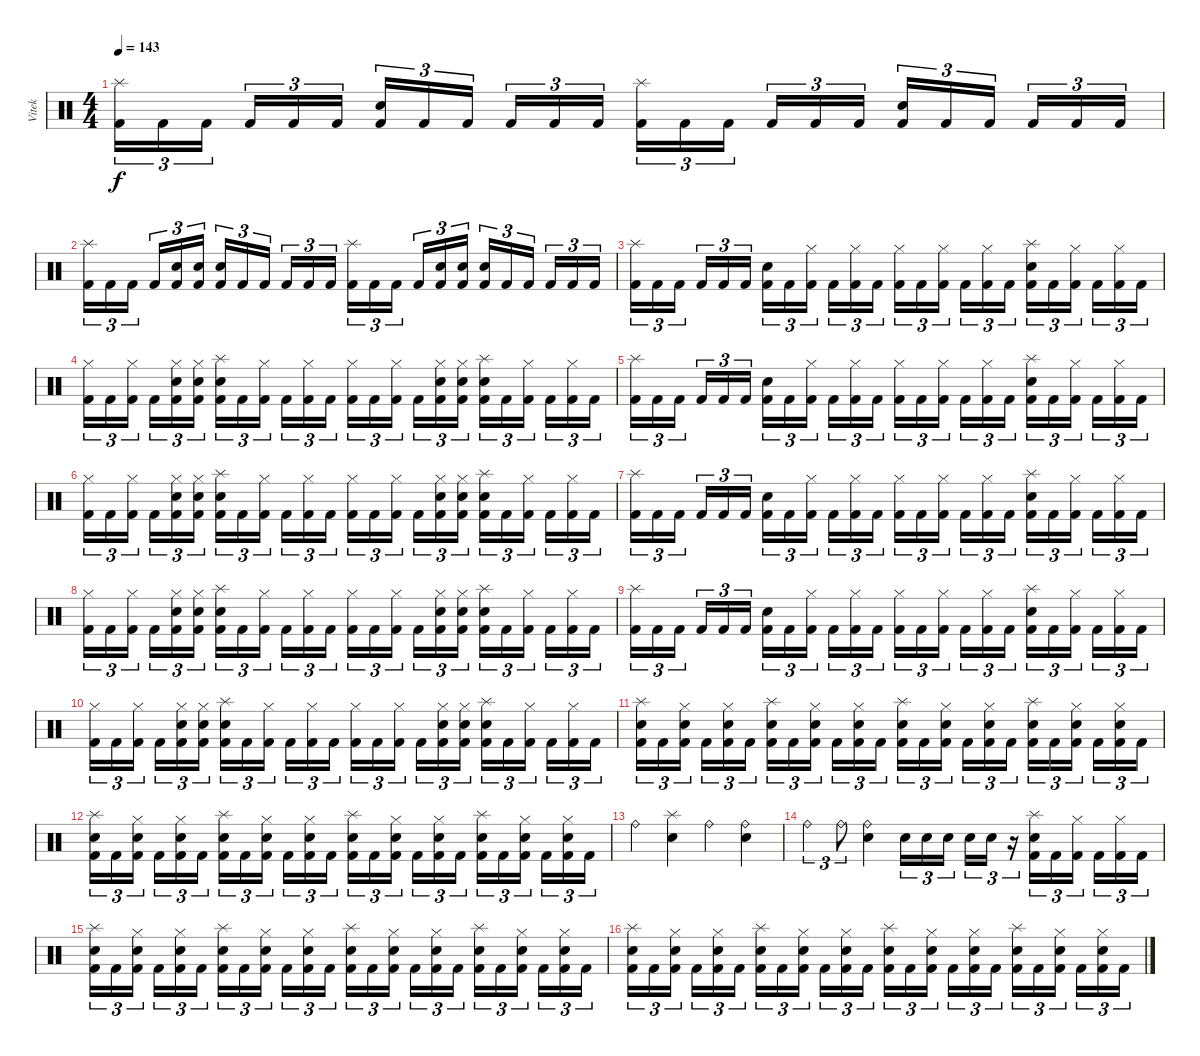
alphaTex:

\track ("Vitek" "Vitek") {instrument percussion}
\staff {score}
\articulation defaults
\ts (4 4)
\tempo 143
\clef neutral
\ks c
("Splash (hit)" "Kick (hit) 2").16{tu (3 2) dy f} "Kick (hit) 2".16{tu (3 2)} "Kick (hit) 2".16{tu (3 2) beam splitsecondary} "Kick (hit) 2".16{tu (3 2)} "Kick (hit) 2".16{tu (3 2)} "Kick (hit) 2".16{tu (3 2)} ("Electric Snare (hit)" "Kick (hit) 2").16{tu (3 2)} "Kick (hit) 2".16{tu (3 2)} "Kick (hit) 2".16{tu (3 2) beam splitsecondary} "Kick (hit) 2".16{tu (3 2)} "Kick (hit) 2".16{tu (3 2)} "Kick (hit) 2".16{tu (3 2)} ("Splash (hit)" "Kick (hit) 2").16{tu (3 2)} "Kick (hit) 2".16{tu (3 2)} "Kick (hit) 2".16{tu (3 2) beam splitsecondary} "Kick (hit) 2".16{tu (3 2)} "Kick (hit) 2".16{tu (3 2)} "Kick (hit) 2".16{tu (3 2)} ("Electric Snare (hit)" "Kick (hit) 2").16{tu (3 2)} "Kick (hit) 2".16{tu (3 2)} "Kick (hit) 2".16{tu (3 2) beam splitsecondary} "Kick (hit) 2".16{tu (3 2)} "Kick (hit) 2".16{tu (3 2)} "Kick (hit) 2".16{tu (3 2)} |
("Splash (hit)" "Kick (hit) 2").16{tu (3 2)} "Kick (hit) 2".16{tu (3 2)} "Kick (hit) 2".16{tu (3 2) beam splitsecondary} "Kick (hit) 2".16{tu (3 2)} ("Electric Snare (hit)" "Kick (hit) 2").16{tu (3 2)} ("Electric Snare (hit)" "Kick (hit) 2").16{tu (3 2)} ("Electric Snare (hit)" "Kick (hit) 2").16{tu (3 2)} "Kick (hit) 2".16{tu (3 2)} "Kick (hit) 2".16{tu (3 2) beam splitsecondary} "Kick (hit) 2".16{tu (3 2)} "Kick (hit) 2".16{tu (3 2)} "Kick (hit) 2".16{tu (3 2)} ("Splash (hit)" "Kick (hit) 2").16{tu (3 2)} "Kick (hit) 2".16{tu (3 2)} "Kick (hit) 2".16{tu (3 2) beam splitsecondary} "Kick (hit) 2".16{tu (3 2)} ("Electric Snare (hit)" "Kick (hit) 2").16{tu (3 2)} ("Electric Snare (hit)" "Kick (hit) 2").16{tu (3 2)} ("Electric Snare (hit)" "Kick (hit) 2").16{tu (3 2)} "Kick (hit) 2".16{tu (3 2)} "Kick (hit) 2".16{tu (3 2) beam splitsecondary} "Kick (hit) 2".16{tu (3 2)} "Kick (hit) 2".16{tu (3 2)} "Kick (hit) 2".16{tu (3 2)} |
("Splash (hit)" "Kick (hit) 2").16{tu (3 2)} "Kick (hit) 2".16{tu (3 2)} "Kick (hit) 2".16{tu (3 2) beam splitsecondary} "Kick (hit) 2".16{tu (3 2)} "Kick (hit) 2".16{tu (3 2)} "Kick (hit) 2".16{tu (3 2)} ("Electric Snare (hit)" "Kick (hit) 2").16{tu (3 2)} "Kick (hit) 2".16{tu (3 2)} ("Hi-Hat (closed)" "Kick (hit) 2").16{tu (3 2) beam splitsecondary} "Kick (hit) 2".16{tu (3 2)} ("Hi-Hat (closed)" "Kick (hit) 2").16{tu (3 2)} "Kick (hit) 2".16{tu (3 2)} ("Hi-Hat (closed)" "Kick (hit) 2").16{tu (3 2)} "Kick (hit) 2".16{tu (3 2)} ("Hi-Hat (closed)" "Kick (hit) 2").16{tu (3 2) beam splitsecondary} "Kick (hit) 2".16{tu (3 2)} ("Hi-Hat (closed)" "Kick (hit) 2").16{tu (3 2)} "Kick (hit) 2".16{tu (3 2)} ("Splash (hit)" "Electric Snare (hit)" "Kick (hit) 2").16{tu (3 2)} "Kick (hit) 2".16{tu (3 2)} ("Hi-Hat (closed)" "Kick (hit) 2").16{tu (3 2) beam splitsecondary} "Kick (hit) 2".16{tu (3 2)} ("Hi-Hat (closed)" "Kick (hit) 2").16{tu (3 2)} "Kick (hit) 2".16{tu (3 2)} |
("Hi-Hat (closed)" "Kick (hit) 2").16{tu (3 2)} "Kick (hit) 2".16{tu (3 2)} ("Hi-Hat (closed)" "Kick (hit) 2").16{tu (3 2) beam splitsecondary} "Kick (hit) 2".16{tu (3 2)} ("Hi-Hat (closed)" "Electric Snare (hit)" "Kick (hit) 2").16{tu (3 2)} ("Hi-Hat (closed)" "Electric Snare (hit)" "Kick (hit) 2").16{tu (3 2)} ("Splash (hit)" "Electric Snare (hit)" "Kick (hit) 2").16{tu (3 2)} "Kick (hit) 2".16{tu (3 2)} ("Hi-Hat (closed)" "Kick (hit) 2").16{tu (3 2) beam splitsecondary} "Kick (hit) 2".16{tu (3 2)} ("Hi-Hat (closed)" "Kick (hit) 2").16{tu (3 2)} "Kick (hit) 2".16{tu (3 2)} ("Hi-Hat (closed)" "Kick (hit) 2").16{tu (3 2)} "Kick (hit) 2".16{tu (3 2)} ("Hi-Hat (closed)" "Kick (hit) 2").16{tu (3 2) beam splitsecondary} "Kick (hit) 2".16{tu (3 2)} ("Hi-Hat (closed)" "Electric Snare (hit)" "Kick (hit) 2").16{tu (3 2)} ("Hi-Hat (closed)" "Electric Snare (hit)" "Kick (hit) 2").16{tu (3 2)} ("Splash (hit)" "Electric Snare (hit)" "Kick (hit) 2").16{tu (3 2)} "Kick (hit) 2".16{tu (3 2)} ("Hi-Hat (closed)" "Kick (hit) 2").16{tu (3 2) beam splitsecondary} "Kick (hit) 2".16{tu (3 2)} ("Hi-Hat (closed)" "Kick (hit) 2").16{tu (3 2)} "Kick (hit) 2".16{tu (3 2)} |
("Splash (hit)" "Kick (hit) 2").16{tu (3 2)} "Kick (hit) 2".16{tu (3 2)} "Kick (hit) 2".16{tu (3 2) beam splitsecondary} "Kick (hit) 2".16{tu (3 2)} "Kick (hit) 2".16{tu (3 2)} "Kick (hit) 2".16{tu (3 2)} ("Electric Snare (hit)" "Kick (hit) 2").16{tu (3 2)} "Kick (hit) 2".16{tu (3 2)} ("Hi-Hat (closed)" "Kick (hit) 2").16{tu (3 2) beam splitsecondary} "Kick (hit) 2".16{tu (3 2)} ("Hi-Hat (closed)" "Kick (hit) 2").16{tu (3 2)} "Kick (hit) 2".16{tu (3 2)} ("Hi-Hat (closed)" "Kick (hit) 2").16{tu (3 2)} "Kick (hit) 2".16{tu (3 2)} ("Hi-Hat (closed)" "Kick (hit) 2").16{tu (3 2) beam splitsecondary} "Kick (hit) 2".16{tu (3 2)} ("Hi-Hat (closed)" "Kick (hit) 2").16{tu (3 2)} "Kick (hit) 2".16{tu (3 2)} ("Splash (hit)" "Electric Snare (hit)" "Kick (hit) 2").16{tu (3 2)} "Kick (hit) 2".16{tu (3 2)} ("Hi-Hat (closed)" "Kick (hit) 2").16{tu (3 2) beam splitsecondary} "Kick (hit) 2".16{tu (3 2)} ("Hi-Hat (closed)" "Kick (hit) 2").16{tu (3 2)} "Kick (hit) 2".16{tu (3 2)} |
("Hi-Hat (closed)" "Kick (hit) 2").16{tu (3 2)} "Kick (hit) 2".16{tu (3 2)} ("Hi-Hat (closed)" "Kick (hit) 2").16{tu (3 2) beam splitsecondary} "Kick (hit) 2".16{tu (3 2)} ("Hi-Hat (closed)" "Electric Snare (hit)" "Kick (hit) 2").16{tu (3 2)} ("Hi-Hat (closed)" "Electric Snare (hit)" "Kick (hit) 2").16{tu (3 2)} ("Splash (hit)" "Electric Snare (hit)" "Kick (hit) 2").16{tu (3 2)} "Kick (hit) 2".16{tu (3 2)} ("Hi-Hat (closed)" "Kick (hit) 2").16{tu (3 2) beam splitsecondary} "Kick (hit) 2".16{tu (3 2)} ("Hi-Hat (closed)" "Kick (hit) 2").16{tu (3 2)} "Kick (hit) 2".16{tu (3 2)} ("Hi-Hat (closed)" "Kick (hit) 2").16{tu (3 2)} "Kick (hit) 2".16{tu (3 2)} ("Hi-Hat (closed)" "Kick (hit) 2").16{tu (3 2) beam splitsecondary} "Kick (hit) 2".16{tu (3 2)} ("Hi-Hat (closed)" "Electric Snare (hit)" "Kick (hit) 2").16{tu (3 2)} ("Hi-Hat (closed)" "Electric Snare (hit)" "Kick (hit) 2").16{tu (3 2)} ("Splash (hit)" "Electric Snare (hit)" "Kick (hit) 2").16{tu (3 2)} "Kick (hit) 2".16{tu (3 2)} ("Hi-Hat (closed)" "Kick (hit) 2").16{tu (3 2) beam splitsecondary} "Kick (hit) 2".16{tu (3 2)} ("Hi-Hat (closed)" "Kick (hit) 2").16{tu (3 2)} "Kick (hit) 2".16{tu (3 2)} |
("Splash (hit)" "Kick (hit) 2").16{tu (3 2)} "Kick (hit) 2".16{tu (3 2)} "Kick (hit) 2".16{tu (3 2) beam splitsecondary} "Kick (hit) 2".16{tu (3 2)} "Kick (hit) 2".16{tu (3 2)} "Kick (hit) 2".16{tu (3 2)} ("Electric Snare (hit)" "Kick (hit) 2").16{tu (3 2)} "Kick (hit) 2".16{tu (3 2)} ("Hi-Hat (closed)" "Kick (hit) 2").16{tu (3 2) beam splitsecondary} "Kick (hit) 2".16{tu (3 2)} ("Hi-Hat (closed)" "Kick (hit) 2").16{tu (3 2)} "Kick (hit) 2".16{tu (3 2)} ("Hi-Hat (closed)" "Kick (hit) 2").16{tu (3 2)} "Kick (hit) 2".16{tu (3 2)} ("Hi-Hat (closed)" "Kick (hit) 2").16{tu (3 2) beam splitsecondary} "Kick (hit) 2".16{tu (3 2)} ("Hi-Hat (closed)" "Kick (hit) 2").16{tu (3 2)} "Kick (hit) 2".16{tu (3 2)} ("Splash (hit)" "Electric Snare (hit)" "Kick (hit) 2").16{tu (3 2)} "Kick (hit) 2".16{tu (3 2)} ("Hi-Hat (closed)" "Kick (hit) 2").16{tu (3 2) beam splitsecondary} "Kick (hit) 2".16{tu (3 2)} ("Hi-Hat (closed)" "Kick (hit) 2").16{tu (3 2)} "Kick (hit) 2".16{tu (3 2)} |
("Hi-Hat (closed)" "Kick (hit) 2").16{tu (3 2)} "Kick (hit) 2".16{tu (3 2)} ("Hi-Hat (closed)" "Kick (hit) 2").16{tu (3 2) beam splitsecondary} "Kick (hit) 2".16{tu (3 2)} ("Hi-Hat (closed)" "Electric Snare (hit)" "Kick (hit) 2").16{tu (3 2)} ("Hi-Hat (closed)" "Electric Snare (hit)" "Kick (hit) 2").16{tu (3 2)} ("Splash (hit)" "Electric Snare (hit)" "Kick (hit) 2").16{tu (3 2)} "Kick (hit) 2".16{tu (3 2)} ("Hi-Hat (closed)" "Kick (hit) 2").16{tu (3 2) beam splitsecondary} "Kick (hit) 2".16{tu (3 2)} ("Hi-Hat (closed)" "Kick (hit) 2").16{tu (3 2)} "Kick (hit) 2".16{tu (3 2)} ("Hi-Hat (closed)" "Kick (hit) 2").16{tu (3 2)} "Kick (hit) 2".16{tu (3 2)} ("Hi-Hat (closed)" "Kick (hit) 2").16{tu (3 2) beam splitsecondary} "Kick (hit) 2".16{tu (3 2)} ("Hi-Hat (closed)" "Electric Snare (hit)" "Kick (hit) 2").16{tu (3 2)} ("Hi-Hat (closed)" "Electric Snare (hit)" "Kick (hit) 2").16{tu (3 2)} ("Splash (hit)" "Electric Snare (hit)" "Kick (hit) 2").16{tu (3 2)} "Kick (hit) 2".16{tu (3 2)} ("Hi-Hat (closed)" "Kick (hit) 2").16{tu (3 2) beam splitsecondary} "Kick (hit) 2".16{tu (3 2)} ("Hi-Hat (closed)" "Kick (hit) 2").16{tu (3 2)} "Kick (hit) 2".16{tu (3 2)} |
("Splash (hit)" "Kick (hit) 2").16{tu (3 2)} "Kick (hit) 2".16{tu (3 2)} "Kick (hit) 2".16{tu (3 2) beam splitsecondary} "Kick (hit) 2".16{tu (3 2)} "Kick (hit) 2".16{tu (3 2)} "Kick (hit) 2".16{tu (3 2)} ("Electric Snare (hit)" "Kick (hit) 2").16{tu (3 2)} "Kick (hit) 2".16{tu (3 2)} ("Hi-Hat (closed)" "Kick (hit) 2").16{tu (3 2) beam splitsecondary} "Kick (hit) 2".16{tu (3 2)} ("Hi-Hat (closed)" "Kick (hit) 2").16{tu (3 2)} "Kick (hit) 2".16{tu (3 2)} ("Hi-Hat (closed)" "Kick (hit) 2").16{tu (3 2)} "Kick (hit) 2".16{tu (3 2)} ("Hi-Hat (closed)" "Kick (hit) 2").16{tu (3 2) beam splitsecondary} "Kick (hit) 2".16{tu (3 2)} ("Hi-Hat (closed)" "Kick (hit) 2").16{tu (3 2)} "Kick (hit) 2".16{tu (3 2)} ("Splash (hit)" "Electric Snare (hit)" "Kick (hit) 2").16{tu (3 2)} "Kick (hit) 2".16{tu (3 2)} ("Hi-Hat (closed)" "Kick (hit) 2").16{tu (3 2) beam splitsecondary} "Kick (hit) 2".16{tu (3 2)} ("Hi-Hat (closed)" "Kick (hit) 2").16{tu (3 2)} "Kick (hit) 2".16{tu (3 2)} |
("Hi-Hat (closed)" "Kick (hit) 2").16{tu (3 2)} "Kick (hit) 2".16{tu (3 2)} ("Hi-Hat (closed)" "Kick (hit) 2").16{tu (3 2) beam splitsecondary} "Kick (hit) 2".16{tu (3 2)} ("Hi-Hat (closed)" "Electric Snare (hit)" "Kick (hit) 2").16{tu (3 2)} ("Hi-Hat (closed)" "Electric Snare (hit)" "Kick (hit) 2").16{tu (3 2)} ("Splash (hit)" "Electric Snare (hit)" "Kick (hit) 2").16{tu (3 2)} "Kick (hit) 2".16{tu (3 2)} ("Hi-Hat (closed)" "Kick (hit) 2").16{tu (3 2) beam splitsecondary} "Kick (hit) 2".16{tu (3 2)} ("Hi-Hat (closed)" "Kick (hit) 2").16{tu (3 2)} "Kick (hit) 2".16{tu (3 2)} ("Hi-Hat (closed)" "Kick (hit) 2").16{tu (3 2)} "Kick (hit) 2".16{tu (3 2)} ("Hi-Hat (closed)" "Kick (hit) 2").16{tu (3 2) beam splitsecondary} "Kick (hit) 2".16{tu (3 2)} ("Hi-Hat (closed)" "Electric Snare (hit)" "Kick (hit) 2").16{tu (3 2)} ("Hi-Hat (closed)" "Electric Snare (hit)" "Kick (hit) 2").16{tu (3 2)} ("Splash (hit)" "Electric Snare (hit)" "Kick (hit) 2").16{tu (3 2)} "Kick (hit) 2".16{tu (3 2)} ("Hi-Hat (closed)" "Kick (hit) 2").16{tu (3 2) beam splitsecondary} "Kick (hit) 2".16{tu (3 2)} ("Hi-Hat (closed)" "Kick (hit) 2").16{tu (3 2)} "Kick (hit) 2".16{tu (3 2)} |
("Splash (hit)" "Electric Snare (hit)" "Kick (hit) 2").16{tu (3 2)} "Kick (hit) 2".16{tu (3 2)} ("Hi-Hat (closed)" "Electric Snare (hit)" "Kick (hit) 2").16{tu (3 2) beam splitsecondary} "Kick (hit) 2".16{tu (3 2)} ("Hi-Hat (closed)" "Electric Snare (hit)" "Kick (hit) 2").16{tu (3 2)} "Kick (hit) 2".16{tu (3 2)} ("Splash (hit)" "Electric Snare (hit)" "Kick (hit) 2").16{tu (3 2)} "Kick (hit) 2".16{tu (3 2)} ("Hi-Hat (closed)" "Electric Snare (hit)" "Kick (hit) 2").16{tu (3 2) beam splitsecondary} "Kick (hit) 2".16{tu (3 2)} ("Hi-Hat (closed)" "Electric Snare (hit)" "Kick (hit) 2").16{tu (3 2)} "Kick (hit) 2".16{tu (3 2)} ("Splash (hit)" "Electric Snare (hit)" "Kick (hit) 2").16{tu (3 2)} "Kick (hit) 2".16{tu (3 2)} ("Hi-Hat (closed)" "Electric Snare (hit)" "Kick (hit) 2").16{tu (3 2) beam splitsecondary} "Kick (hit) 2".16{tu (3 2)} ("Hi-Hat (closed)" "Electric Snare (hit)" "Kick (hit) 2").16{tu (3 2)} "Kick (hit) 2".16{tu (3 2)} ("Splash (hit)" "Electric Snare (hit)" "Kick (hit) 2").16{tu (3 2)} "Kick (hit) 2".16{tu (3 2)} ("Hi-Hat (closed)" "Electric Snare (hit)" "Kick (hit) 2").16{tu (3 2) beam splitsecondary} "Kick (hit) 2".16{tu (3 2)} ("Hi-Hat (closed)" "Electric Snare (hit)" "Kick (hit) 2").16{tu (3 2)} "Kick (hit) 2".16{tu (3 2)} |
("Splash (hit)" "Electric Snare (hit)" "Kick (hit) 2").16{tu (3 2)} "Kick (hit) 2".16{tu (3 2)} ("Hi-Hat (closed)" "Electric Snare (hit)" "Kick (hit) 2").16{tu (3 2) beam splitsecondary} "Kick (hit) 2".16{tu (3 2)} ("Hi-Hat (closed)" "Electric Snare (hit)" "Kick (hit) 2").16{tu (3 2)} "Kick (hit) 2".16{tu (3 2)} ("Splash (hit)" "Electric Snare (hit)" "Kick (hit) 2").16{tu (3 2)} "Kick (hit) 2".16{tu (3 2)} ("Hi-Hat (closed)" "Electric Snare (hit)" "Kick (hit) 2").16{tu (3 2) beam splitsecondary} "Kick (hit) 2".16{tu (3 2)} ("Hi-Hat (closed)" "Electric Snare (hit)" "Kick (hit) 2").16{tu (3 2)} "Kick (hit) 2".16{tu (3 2)} ("Splash (hit)" "Electric Snare (hit)" "Kick (hit) 2").16{tu (3 2)} "Kick (hit) 2".16{tu (3 2)} ("Hi-Hat (closed)" "Electric Snare (hit)" "Kick (hit) 2").16{tu (3 2) beam splitsecondary} "Kick (hit) 2".16{tu (3 2)} ("Hi-Hat (closed)" "Electric Snare (hit)" "Kick (hit) 2").16{tu (3 2)} "Kick (hit) 2".16{tu (3 2)} ("Splash (hit)" "Electric Snare (hit)" "Kick (hit) 2").16{tu (3 2)} "Kick (hit) 2".16{tu (3 2)} ("Hi-Hat (closed)" "Electric Snare (hit)" "Kick (hit) 2").16{tu (3 2) beam splitsecondary} "Kick (hit) 2".16{tu (3 2)} ("Hi-Hat (closed)" "Electric Snare (hit)" "Kick (hit) 2").16{tu (3 2)} "Kick (hit) 2".16{tu (3 2)} |
"Ride (bell)".4 ("Splash (hit)" "Electric Snare (hit)").4 "Ride (bell)".4 ("Ride (bell)" "Electric Snare (hit)").4 |
"Ride (bell)".4{tu (3 2)} "Ride (bell)".8{tu (3 2)} ("Ride (bell)" "Electric Snare (hit)").4 "Electric Snare (hit)".16{tu (3 2)} "Electric Snare (hit)".16{tu (3 2)} "Electric Snare (hit)".16{tu (3 2) beam splitsecondary} "Electric Snare (hit)".16{tu (3 2)} "Electric Snare (hit)".16{tu (3 2)} r.16{tu (3 2)} ("Splash (hit)" "Electric Snare (hit)" "Kick (hit) 2").16{tu (3 2)} "Kick (hit) 2".16{tu (3 2)} ("Hi-Hat (closed)" "Kick (hit) 2").16{tu (3 2) beam splitsecondary} "Kick (hit) 2".16{tu (3 2)} ("Hi-Hat (closed)" "Kick (hit) 2").16{tu (3 2)} "Kick (hit) 2".16{tu (3 2)} |
("Splash (hit)" "Electric Snare (hit)" "Kick (hit) 2").16{tu (3 2)} "Kick (hit) 2".16{tu (3 2)} ("Hi-Hat (closed)" "Electric Snare (hit)" "Kick (hit) 2").16{tu (3 2) beam splitsecondary} "Kick (hit) 2".16{tu (3 2)} ("Hi-Hat (closed)" "Electric Snare (hit)" "Kick (hit) 2").16{tu (3 2)} "Kick (hit) 2".16{tu (3 2)} ("Splash (hit)" "Electric Snare (hit)" "Kick (hit) 2").16{tu (3 2)} "Kick (hit) 2".16{tu (3 2)} ("Hi-Hat (closed)" "Electric Snare (hit)" "Kick (hit) 2").16{tu (3 2) beam splitsecondary} "Kick (hit) 2".16{tu (3 2)} ("Hi-Hat (closed)" "Electric Snare (hit)" "Kick (hit) 2").16{tu (3 2)} "Kick (hit) 2".16{tu (3 2)} ("Splash (hit)" "Electric Snare (hit)" "Kick (hit) 2").16{tu (3 2)} "Kick (hit) 2".16{tu (3 2)} ("Hi-Hat (closed)" "Electric Snare (hit)" "Kick (hit) 2").16{tu (3 2) beam splitsecondary} "Kick (hit) 2".16{tu (3 2)} ("Hi-Hat (closed)" "Electric Snare (hit)" "Kick (hit) 2").16{tu (3 2)} "Kick (hit) 2".16{tu (3 2)} ("Splash (hit)" "Electric Snare (hit)" "Kick (hit) 2").16{tu (3 2)} "Kick (hit) 2".16{tu (3 2)} ("Hi-Hat (closed)" "Electric Snare (hit)" "Kick (hit) 2").16{tu (3 2) beam splitsecondary} "Kick (hit) 2".16{tu (3 2)} ("Hi-Hat (closed)" "Electric Snare (hit)" "Kick (hit) 2").16{tu (3 2)} "Kick (hit) 2".16{tu (3 2)} |
("Splash (hit)" "Electric Snare (hit)" "Kick (hit) 2").16{tu (3 2)} "Kick (hit) 2".16{tu (3 2)} ("Hi-Hat (closed)" "Electric Snare (hit)" "Kick (hit) 2").16{tu (3 2) beam splitsecondary} "Kick (hit) 2".16{tu (3 2)} ("Hi-Hat (closed)" "Electric Snare (hit)" "Kick (hit) 2").16{tu (3 2)} "Kick (hit) 2".16{tu (3 2)} ("Splash (hit)" "Electric Snare (hit)" "Kick (hit) 2").16{tu (3 2)} "Kick (hit) 2".16{tu (3 2)} ("Hi-Hat (closed)" "Electric Snare (hit)" "Kick (hit) 2").16{tu (3 2) beam splitsecondary} "Kick (hit) 2".16{tu (3 2)} ("Hi-Hat (closed)" "Electric Snare (hit)" "Kick (hit) 2").16{tu (3 2)} "Kick (hit) 2".16{tu (3 2)} ("Splash (hit)" "Electric Snare (hit)" "Kick (hit) 2").16{tu (3 2)} "Kick (hit) 2".16{tu (3 2)} ("Hi-Hat (closed)" "Electric Snare (hit)" "Kick (hit) 2").16{tu (3 2) beam splitsecondary} "Kick (hit) 2".16{tu (3 2)} ("Hi-Hat (closed)" "Electric Snare (hit)" "Kick (hit) 2").16{tu (3 2)} "Kick (hit) 2".16{tu (3 2)} ("Splash (hit)" "Electric Snare (hit)" "Kick (hit) 2").16{tu (3 2)} "Kick (hit) 2".16{tu (3 2)} ("Hi-Hat (closed)" "Electric Snare (hit)" "Kick (hit) 2").16{tu (3 2) beam splitsecondary} "Kick (hit) 2".16{tu (3 2)} ("Hi-Hat (closed)" "Electric Snare (hit)" "Kick (hit) 2").16{tu (3 2)} "Kick (hit) 2".16{tu (3 2)}
